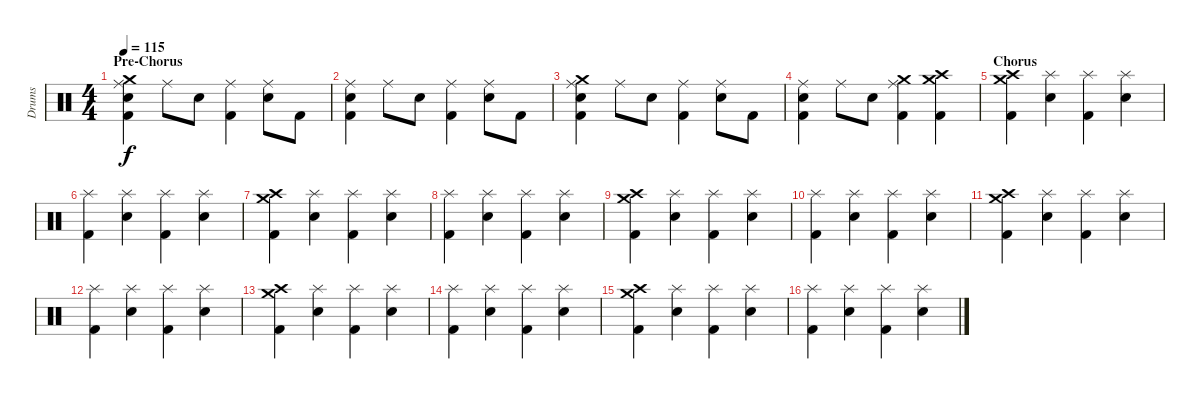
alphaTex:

\track ("Drums" "Drums") {instrument percussion}
\staff {score}
\articulation defaults
\ts (4 4)
\section ("" "Pre-Chorus")
\tempo 115
\clef neutral
\ks c
("Ride (middle)" "Crash medium (hit)" "Snare (hit) 2" "Kick (hit) 2").4{dy f} "Ride (middle)".8 "Snare (hit) 2".8 ("Ride (middle)" "Kick (hit) 2").4 ("Ride (middle)" "Snare (hit) 2").8 "Kick (hit) 2".8 |
("Ride (middle)" "Snare (hit) 2" "Kick (hit) 2").4 "Ride (middle)".8 "Snare (hit) 2".8 ("Ride (middle)" "Kick (hit) 2").4 ("Ride (middle)" "Snare (hit) 2").8 "Kick (hit) 2".8 |
("Ride (middle)" "Crash medium (hit)" "Snare (hit) 2" "Kick (hit) 2").4 "Ride (middle)".8 "Snare (hit) 2".8 ("Ride (middle)" "Kick (hit) 2").4 ("Ride (middle)" "Snare (hit) 2").8 "Kick (hit) 2".8 |
("Ride (middle)" "Snare (hit) 2" "Kick (hit) 2").4 "Ride (middle)".8 "Snare (hit) 2".8 ("Ride (middle)" "Crash medium (hit)" "Kick (hit) 2").4 ("Crash medium (hit)" "Crash high (hit)" "Kick (hit) 2").4 |
\section ("" "Chorus")
("Crash high (hit)" "Crash medium (hit)" "Kick (hit) 2").4 ("Splash (hit)" "Snare (hit) 2").4 ("Splash (hit)" "Kick (hit) 2").4 ("Splash (hit)" "Snare (hit) 2").4 |
("Splash (hit)" "Kick (hit) 2").4 ("Splash (hit)" "Snare (hit) 2").4 ("Splash (hit)" "Kick (hit) 2").4 ("Splash (hit)" "Snare (hit) 2").4 |
("Crash high (hit)" "Crash medium (hit)" "Kick (hit) 2").4 ("Splash (hit)" "Snare (hit) 2").4 ("Splash (hit)" "Kick (hit) 2").4 ("Splash (hit)" "Snare (hit) 2").4 |
("Splash (hit)" "Kick (hit) 2").4 ("Splash (hit)" "Snare (hit) 2").4 ("Splash (hit)" "Kick (hit) 2").4 ("Splash (hit)" "Snare (hit) 2").4 |
("Crash high (hit)" "Crash medium (hit)" "Kick (hit) 2").4 ("Splash (hit)" "Snare (hit) 2").4 ("Splash (hit)" "Kick (hit) 2").4 ("Splash (hit)" "Snare (hit) 2").4 |
("Splash (hit)" "Kick (hit) 2").4 ("Splash (hit)" "Snare (hit) 2").4 ("Splash (hit)" "Kick (hit) 2").4 ("Splash (hit)" "Snare (hit) 2").4 |
("Crash high (hit)" "Crash medium (hit)" "Kick (hit) 2").4 ("Splash (hit)" "Snare (hit) 2").4 ("Splash (hit)" "Kick (hit) 2").4 ("Splash (hit)" "Snare (hit) 2").4 |
("Splash (hit)" "Kick (hit) 2").4 ("Splash (hit)" "Snare (hit) 2").4 ("Splash (hit)" "Kick (hit) 2").4 ("Splash (hit)" "Snare (hit) 2").4 |
("Crash high (hit)" "Crash medium (hit)" "Kick (hit) 2").4 ("Splash (hit)" "Snare (hit) 2").4 ("Splash (hit)" "Kick (hit) 2").4 ("Splash (hit)" "Snare (hit) 2").4 |
("Splash (hit)" "Kick (hit) 2").4 ("Splash (hit)" "Snare (hit) 2").4 ("Splash (hit)" "Kick (hit) 2").4 ("Splash (hit)" "Snare (hit) 2").4 |
("Crash high (hit)" "Crash medium (hit)" "Kick (hit) 2").4 ("Splash (hit)" "Snare (hit) 2").4 ("Splash (hit)" "Kick (hit) 2").4 ("Splash (hit)" "Snare (hit) 2").4 |
("Splash (hit)" "Kick (hit) 2").4 ("Splash (hit)" "Snare (hit) 2").4 ("Splash (hit)" "Kick (hit) 2").4 ("Splash (hit)" "Snare (hit) 2").4
